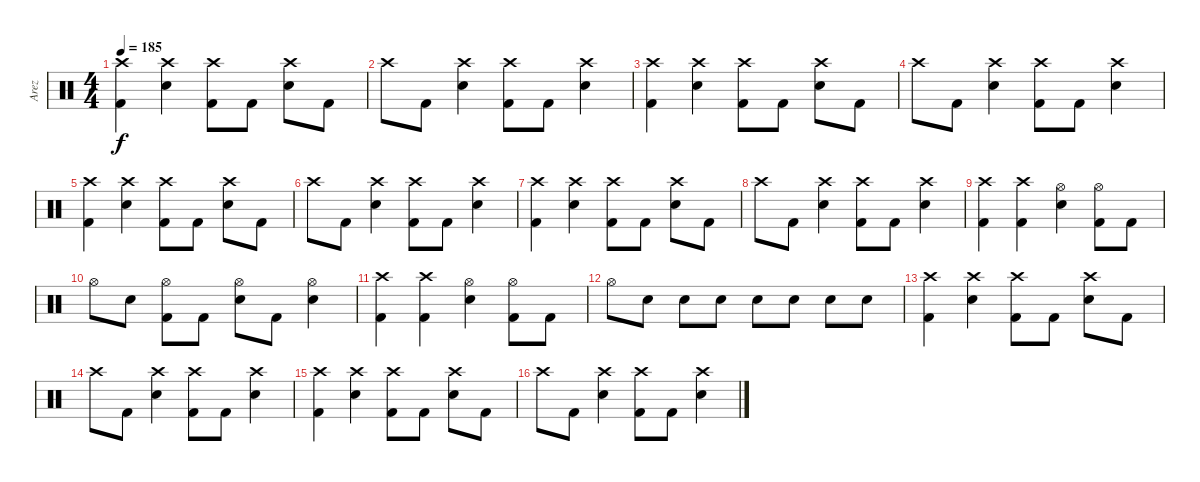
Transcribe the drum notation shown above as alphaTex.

\track ("Arez" "Arez") {instrument percussion}
\staff {score}
\articulation defaults
\ts (4 4)
\tempo 185
\clef neutral
\ks c
("Crash high (hit)" "Kick (hit) 2").4{dy f} ("Crash high (hit)" "Electric Snare (hit)").4 ("Crash high (hit)" "Kick (hit) 2").8 "Kick (hit) 2".8 ("Crash high (hit)" "Electric Snare (hit)").8 "Kick (hit) 2".8 |
"Crash high (hit)".8 "Kick (hit) 2".8 ("Electric Snare (hit)" "Crash high (hit)").4 ("Kick (hit) 2" "Crash high (hit)").8 "Kick (hit) 2".8 ("Electric Snare (hit)" "Crash high (hit)").4 |
("Crash high (hit)" "Kick (hit) 2").4 ("Crash high (hit)" "Electric Snare (hit)").4 ("Crash high (hit)" "Kick (hit) 2").8 "Kick (hit) 2".8 ("Crash high (hit)" "Electric Snare (hit)").8 "Kick (hit) 2".8 |
"Crash high (hit)".8 "Kick (hit) 2".8 ("Electric Snare (hit)" "Crash high (hit)").4 ("Kick (hit) 2" "Crash high (hit)").8 "Kick (hit) 2".8 ("Electric Snare (hit)" "Crash high (hit)").4 |
("Crash high (hit)" "Kick (hit) 2").4 ("Crash high (hit)" "Electric Snare (hit)").4 ("Crash high (hit)" "Kick (hit) 2").8 "Kick (hit) 2".8 ("Crash high (hit)" "Electric Snare (hit)").8 "Kick (hit) 2".8 |
"Crash high (hit)".8 "Kick (hit) 2".8 ("Electric Snare (hit)" "Crash high (hit)").4 ("Kick (hit) 2" "Crash high (hit)").8 "Kick (hit) 2".8 ("Electric Snare (hit)" "Crash high (hit)").4 |
("Crash high (hit)" "Kick (hit) 2").4 ("Crash high (hit)" "Electric Snare (hit)").4 ("Crash high (hit)" "Kick (hit) 2").8 "Kick (hit) 2".8 ("Crash high (hit)" "Electric Snare (hit)").8 "Kick (hit) 2".8 |
"Crash high (hit)".8 "Kick (hit) 2".8 ("Electric Snare (hit)" "Crash high (hit)").4 ("Kick (hit) 2" "Crash high (hit)").8 "Kick (hit) 2".8 ("Electric Snare (hit)" "Crash high (hit)").4 |
("Crash high (hit)" "Kick (hit) 2").4 ("Crash high (hit)" "Kick (hit) 2").4 ("Electric Snare (hit)" "Hi-Hat (open)").4 ("Kick (hit) 2" "Hi-Hat (open)").8 "Kick (hit) 2".8 |
"Hi-Hat (open)".8 "Electric Snare (hit)".8 ("Kick (hit) 2" "Hi-Hat (open)").8 "Kick (hit) 2".8 ("Electric Snare (hit)" "Hi-Hat (open)").8 "Kick (hit) 2".8 ("Hi-Hat (open)" "Electric Snare (hit)").4 |
("Crash high (hit)" "Kick (hit) 2").4 ("Crash high (hit)" "Kick (hit) 2").4 ("Electric Snare (hit)" "Hi-Hat (open)").4 ("Kick (hit) 2" "Hi-Hat (open)").8 "Kick (hit) 2".8 |
"Hi-Hat (open)".8 "Electric Snare (hit)".8 "Electric Snare (hit)".8 "Electric Snare (hit)".8 "Electric Snare (hit)".8 "Electric Snare (hit)".8 "Electric Snare (hit)".8 "Electric Snare (hit)".8 |
("Crash high (hit)" "Kick (hit) 2").4 ("Crash high (hit)" "Electric Snare (hit)").4 ("Crash high (hit)" "Kick (hit) 2").8 "Kick (hit) 2".8 ("Crash high (hit)" "Electric Snare (hit)").8 "Kick (hit) 2".8 |
"Crash high (hit)".8 "Kick (hit) 2".8 ("Electric Snare (hit)" "Crash high (hit)").4 ("Kick (hit) 2" "Crash high (hit)").8 "Kick (hit) 2".8 ("Electric Snare (hit)" "Crash high (hit)").4 |
("Crash high (hit)" "Kick (hit) 2").4 ("Crash high (hit)" "Electric Snare (hit)").4 ("Crash high (hit)" "Kick (hit) 2").8 "Kick (hit) 2".8 ("Crash high (hit)" "Electric Snare (hit)").8 "Kick (hit) 2".8 |
"Crash high (hit)".8 "Kick (hit) 2".8 ("Electric Snare (hit)" "Crash high (hit)").4 ("Kick (hit) 2" "Crash high (hit)").8 "Kick (hit) 2".8 ("Electric Snare (hit)" "Crash high (hit)").4
